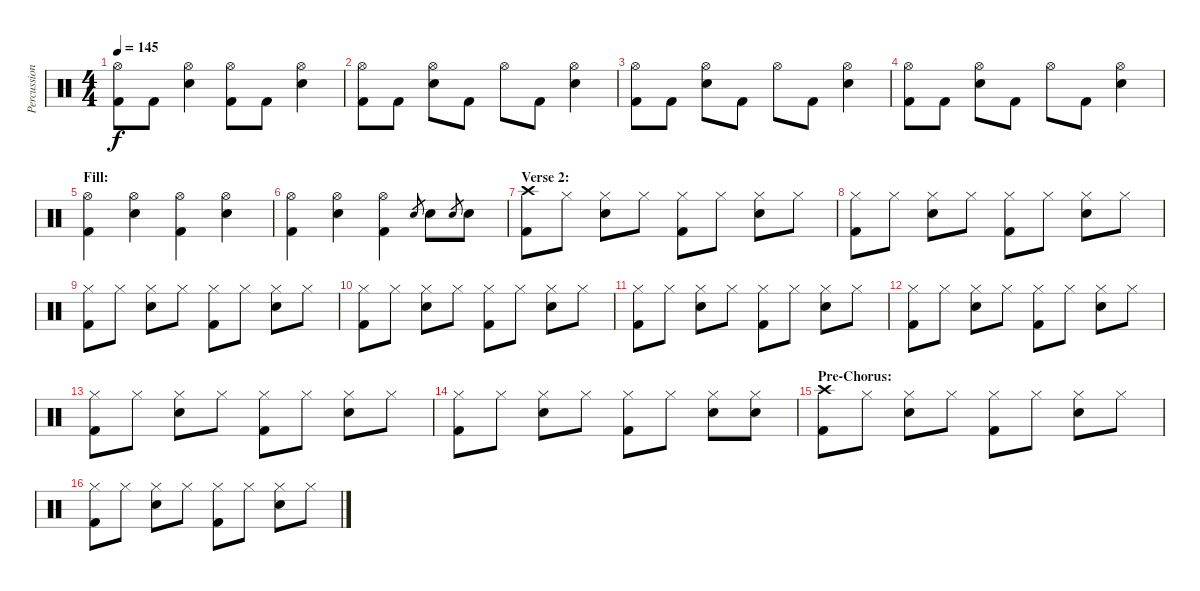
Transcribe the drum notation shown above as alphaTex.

\track ("Percussion" "Percussion") {instrument percussion}
\staff {score}
\articulation defaults
\ts (4 4)
\tempo 145
\clef neutral
\ks c
("Hi-Hat (open)" "Kick (hit) 2").8{dy f} "Kick (hit) 2".8 ("Hi-Hat (open)" "Snare (hit) 2").4 ("Hi-Hat (open)" "Kick (hit) 2").8 "Kick (hit) 2".8 ("Hi-Hat (open)" "Snare (hit) 2").4 |
("Hi-Hat (open)" "Kick (hit) 2").8 "Kick (hit) 2".8 ("Hi-Hat (open)" "Snare (hit) 2").8 "Kick (hit) 2".8 "Hi-Hat (open)".8 "Kick (hit) 2".8 ("Hi-Hat (open)" "Snare (hit) 2").4 |
("Hi-Hat (open)" "Kick (hit) 2").8 "Kick (hit) 2".8 ("Hi-Hat (open)" "Snare (hit) 2").8 "Kick (hit) 2".8 "Hi-Hat (open)".8 "Kick (hit) 2".8 ("Hi-Hat (open)" "Snare (hit) 2").4 |
("Hi-Hat (open)" "Kick (hit) 2").8 "Kick (hit) 2".8 ("Hi-Hat (open)" "Snare (hit) 2").8 "Kick (hit) 2".8 "Hi-Hat (open)".8 "Kick (hit) 2".8 ("Hi-Hat (open)" "Snare (hit) 2").4 |
\section ("" "Fill:")
("Hi-Hat (open)" "Kick (hit) 2").4 ("Hi-Hat (open)" "Snare (hit) 2").4 ("Hi-Hat (open)" "Kick (hit) 2").4 ("Hi-Hat (open)" "Snare (hit) 2").4 |
("Hi-Hat (open)" "Kick (hit) 2").4 ("Hi-Hat (open)" "Snare (hit) 2").4 ("Hi-Hat (open)" "Kick (hit) 2").4 "Snare (hit) 2".8{gr} "Snare (hit) 2".8 "Snare (hit) 2".8{gr} "Snare (hit) 2".8 |
\section ("" "Verse 2:")
("Crash high (hit)" "Kick (hit) 2").8 "Hi-Hat (closed)".8 ("Hi-Hat (closed)" "Snare (hit) 2").8 "Hi-Hat (closed)".8 ("Hi-Hat (closed)" "Kick (hit) 2").8 "Hi-Hat (closed)".8 ("Hi-Hat (closed)" "Snare (hit) 2").8 "Hi-Hat (closed)".8 |
("Hi-Hat (closed)" "Kick (hit) 2").8 "Hi-Hat (closed)".8 ("Hi-Hat (closed)" "Snare (hit) 2").8 "Hi-Hat (closed)".8 ("Hi-Hat (closed)" "Kick (hit) 2").8 "Hi-Hat (closed)".8 ("Hi-Hat (closed)" "Snare (hit) 2").8 "Hi-Hat (closed)".8 |
("Hi-Hat (closed)" "Kick (hit) 2").8 "Hi-Hat (closed)".8 ("Hi-Hat (closed)" "Snare (hit) 2").8 "Hi-Hat (closed)".8 ("Hi-Hat (closed)" "Kick (hit) 2").8 "Hi-Hat (closed)".8 ("Hi-Hat (closed)" "Snare (hit) 2").8 "Hi-Hat (closed)".8 |
("Hi-Hat (closed)" "Kick (hit) 2").8 "Hi-Hat (closed)".8 ("Hi-Hat (closed)" "Snare (hit) 2").8 "Hi-Hat (closed)".8 ("Hi-Hat (closed)" "Kick (hit) 2").8 "Hi-Hat (closed)".8 ("Hi-Hat (closed)" "Snare (hit) 2").8 "Hi-Hat (closed)".8 |
("Hi-Hat (closed)" "Kick (hit) 2").8 "Hi-Hat (closed)".8 ("Hi-Hat (closed)" "Snare (hit) 2").8 "Hi-Hat (closed)".8 ("Hi-Hat (closed)" "Kick (hit) 2").8 "Hi-Hat (closed)".8 ("Hi-Hat (closed)" "Snare (hit) 2").8 "Hi-Hat (closed)".8 |
("Hi-Hat (closed)" "Kick (hit) 2").8 "Hi-Hat (closed)".8 ("Hi-Hat (closed)" "Snare (hit) 2").8 "Hi-Hat (closed)".8 ("Hi-Hat (closed)" "Kick (hit) 2").8 "Hi-Hat (closed)".8 ("Hi-Hat (closed)" "Snare (hit) 2").8 "Hi-Hat (closed)".8 |
("Hi-Hat (closed)" "Kick (hit) 2").8 "Hi-Hat (closed)".8 ("Hi-Hat (closed)" "Snare (hit) 2").8 "Hi-Hat (closed)".8 ("Hi-Hat (closed)" "Kick (hit) 2").8 "Hi-Hat (closed)".8 ("Hi-Hat (closed)" "Snare (hit) 2").8 "Hi-Hat (closed)".8 |
("Hi-Hat (closed)" "Kick (hit) 2").8 "Hi-Hat (closed)".8 ("Hi-Hat (closed)" "Snare (hit) 2").8 "Hi-Hat (closed)".8 ("Hi-Hat (closed)" "Kick (hit) 2").8 "Hi-Hat (closed)".8 ("Hi-Hat (closed)" "Snare (hit) 2").8 ("Hi-Hat (closed)" "Snare (hit) 2").8 |
\section ("" "Pre-Chorus:")
("Crash high (hit)" "Kick (hit) 2").8 "Hi-Hat (closed)".8 ("Hi-Hat (closed)" "Snare (hit) 2").8 "Hi-Hat (closed)".8 ("Hi-Hat (closed)" "Kick (hit) 2").8 "Hi-Hat (closed)".8 ("Hi-Hat (closed)" "Snare (hit) 2").8 "Hi-Hat (closed)".8 |
("Hi-Hat (closed)" "Kick (hit) 2").8 "Hi-Hat (closed)".8 ("Hi-Hat (closed)" "Snare (hit) 2").8 "Hi-Hat (closed)".8 ("Hi-Hat (closed)" "Kick (hit) 2").8 "Hi-Hat (closed)".8 ("Hi-Hat (closed)" "Snare (hit) 2").8 "Hi-Hat (closed)".8
